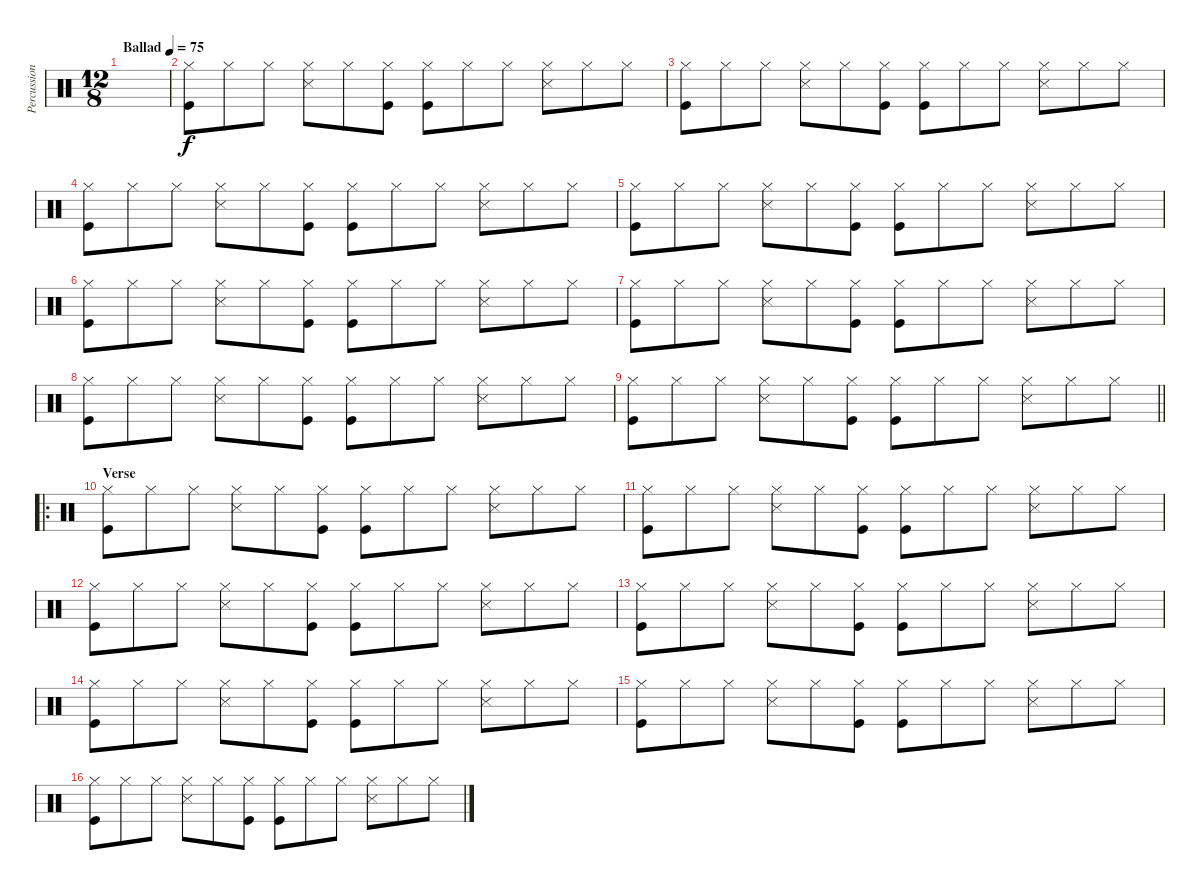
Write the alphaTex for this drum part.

\track ("Percussion" "Percussion") {instrument percussion}
\staff {score}
\articulation defaults
\ts (12 8)
\tempo (75 "Ballad")
\clef neutral
\ks c
|
("Hi-Hat (closed)" "Kick (hit)").8 "Hi-Hat (closed)".8 "Hi-Hat (closed)".8 ("Hi-Hat (closed)" "Snare (side stick) 3").8 "Hi-Hat (closed)".8 ("Hi-Hat (closed)" "Kick (hit)").8 ("Hi-Hat (closed)" "Kick (hit)").8 "Hi-Hat (closed)".8 "Hi-Hat (closed)".8 ("Hi-Hat (closed)" "Snare (side stick) 3").8 "Hi-Hat (closed)".8 "Hi-Hat (closed)".8 |
("Hi-Hat (closed)" "Kick (hit)").8 "Hi-Hat (closed)".8 "Hi-Hat (closed)".8 ("Hi-Hat (closed)" "Snare (side stick) 3").8 "Hi-Hat (closed)".8 ("Hi-Hat (closed)" "Kick (hit)").8 ("Hi-Hat (closed)" "Kick (hit)").8 "Hi-Hat (closed)".8 "Hi-Hat (closed)".8 ("Hi-Hat (closed)" "Snare (side stick) 3").8 "Hi-Hat (closed)".8 "Hi-Hat (closed)".8 |
("Hi-Hat (closed)" "Kick (hit)").8 "Hi-Hat (closed)".8 "Hi-Hat (closed)".8 ("Hi-Hat (closed)" "Snare (side stick) 3").8 "Hi-Hat (closed)".8 ("Hi-Hat (closed)" "Kick (hit)").8 ("Hi-Hat (closed)" "Kick (hit)").8 "Hi-Hat (closed)".8 "Hi-Hat (closed)".8 ("Hi-Hat (closed)" "Snare (side stick) 3").8 "Hi-Hat (closed)".8 "Hi-Hat (closed)".8 |
("Hi-Hat (closed)" "Kick (hit)").8 "Hi-Hat (closed)".8 "Hi-Hat (closed)".8 ("Hi-Hat (closed)" "Snare (side stick) 3").8 "Hi-Hat (closed)".8 ("Hi-Hat (closed)" "Kick (hit)").8 ("Hi-Hat (closed)" "Kick (hit)").8 "Hi-Hat (closed)".8 "Hi-Hat (closed)".8 ("Hi-Hat (closed)" "Snare (side stick) 3").8 "Hi-Hat (closed)".8 "Hi-Hat (closed)".8 |
("Hi-Hat (closed)" "Kick (hit)").8 "Hi-Hat (closed)".8 "Hi-Hat (closed)".8 ("Hi-Hat (closed)" "Snare (side stick) 3").8 "Hi-Hat (closed)".8 ("Hi-Hat (closed)" "Kick (hit)").8 ("Hi-Hat (closed)" "Kick (hit)").8 "Hi-Hat (closed)".8 "Hi-Hat (closed)".8 ("Hi-Hat (closed)" "Snare (side stick) 3").8 "Hi-Hat (closed)".8 "Hi-Hat (closed)".8 |
("Hi-Hat (closed)" "Kick (hit)").8 "Hi-Hat (closed)".8 "Hi-Hat (closed)".8 ("Hi-Hat (closed)" "Snare (side stick) 3").8 "Hi-Hat (closed)".8 ("Hi-Hat (closed)" "Kick (hit)").8 ("Hi-Hat (closed)" "Kick (hit)").8 "Hi-Hat (closed)".8 "Hi-Hat (closed)".8 ("Hi-Hat (closed)" "Snare (side stick) 3").8 "Hi-Hat (closed)".8 "Hi-Hat (closed)".8 |
("Hi-Hat (closed)" "Kick (hit)").8 "Hi-Hat (closed)".8 "Hi-Hat (closed)".8 ("Hi-Hat (closed)" "Snare (side stick) 3").8 "Hi-Hat (closed)".8 ("Hi-Hat (closed)" "Kick (hit)").8 ("Hi-Hat (closed)" "Kick (hit)").8 "Hi-Hat (closed)".8 "Hi-Hat (closed)".8 ("Hi-Hat (closed)" "Snare (side stick) 3").8 "Hi-Hat (closed)".8 "Hi-Hat (closed)".8 |
\barLineRight lightlight
("Hi-Hat (closed)" "Kick (hit)").8 "Hi-Hat (closed)".8 "Hi-Hat (closed)".8 ("Hi-Hat (closed)" "Snare (side stick) 3").8 "Hi-Hat (closed)".8 ("Hi-Hat (closed)" "Kick (hit)").8 ("Hi-Hat (closed)" "Kick (hit)").8 "Hi-Hat (closed)".8 "Hi-Hat (closed)".8 ("Hi-Hat (closed)" "Snare (side stick) 3").8 "Hi-Hat (closed)".8 "Hi-Hat (closed)".8 |
\ro
\section ("" "Verse")
("Hi-Hat (closed)" "Kick (hit)").8 "Hi-Hat (closed)".8 "Hi-Hat (closed)".8 ("Hi-Hat (closed)" "Snare (side stick) 3").8 "Hi-Hat (closed)".8 ("Hi-Hat (closed)" "Kick (hit)").8 ("Hi-Hat (closed)" "Kick (hit)").8 "Hi-Hat (closed)".8 "Hi-Hat (closed)".8 ("Hi-Hat (closed)" "Snare (side stick) 3").8 "Hi-Hat (closed)".8 "Hi-Hat (closed)".8 |
("Hi-Hat (closed)" "Kick (hit)").8 "Hi-Hat (closed)".8 "Hi-Hat (closed)".8 ("Hi-Hat (closed)" "Snare (side stick) 3").8 "Hi-Hat (closed)".8 ("Hi-Hat (closed)" "Kick (hit)").8 ("Hi-Hat (closed)" "Kick (hit)").8 "Hi-Hat (closed)".8 "Hi-Hat (closed)".8 ("Hi-Hat (closed)" "Snare (side stick) 3").8 "Hi-Hat (closed)".8 "Hi-Hat (closed)".8 |
("Hi-Hat (closed)" "Kick (hit)").8 "Hi-Hat (closed)".8 "Hi-Hat (closed)".8 ("Hi-Hat (closed)" "Snare (side stick) 3").8 "Hi-Hat (closed)".8 ("Hi-Hat (closed)" "Kick (hit)").8 ("Hi-Hat (closed)" "Kick (hit)").8 "Hi-Hat (closed)".8 "Hi-Hat (closed)".8 ("Hi-Hat (closed)" "Snare (side stick) 3").8 "Hi-Hat (closed)".8 "Hi-Hat (closed)".8 |
("Hi-Hat (closed)" "Kick (hit)").8 "Hi-Hat (closed)".8 "Hi-Hat (closed)".8 ("Hi-Hat (closed)" "Snare (side stick) 3").8 "Hi-Hat (closed)".8 ("Hi-Hat (closed)" "Kick (hit)").8 ("Hi-Hat (closed)" "Kick (hit)").8 "Hi-Hat (closed)".8 "Hi-Hat (closed)".8 ("Hi-Hat (closed)" "Snare (side stick) 3").8 "Hi-Hat (closed)".8 "Hi-Hat (closed)".8 |
("Hi-Hat (closed)" "Kick (hit)").8 "Hi-Hat (closed)".8 "Hi-Hat (closed)".8 ("Hi-Hat (closed)" "Snare (side stick) 3").8 "Hi-Hat (closed)".8 ("Hi-Hat (closed)" "Kick (hit)").8 ("Hi-Hat (closed)" "Kick (hit)").8 "Hi-Hat (closed)".8 "Hi-Hat (closed)".8 ("Hi-Hat (closed)" "Snare (side stick) 3").8 "Hi-Hat (closed)".8 "Hi-Hat (closed)".8 |
("Hi-Hat (closed)" "Kick (hit)").8 "Hi-Hat (closed)".8 "Hi-Hat (closed)".8 ("Hi-Hat (closed)" "Snare (side stick) 3").8 "Hi-Hat (closed)".8 ("Hi-Hat (closed)" "Kick (hit)").8 ("Hi-Hat (closed)" "Kick (hit)").8 "Hi-Hat (closed)".8 "Hi-Hat (closed)".8 ("Hi-Hat (closed)" "Snare (side stick) 3").8 "Hi-Hat (closed)".8 "Hi-Hat (closed)".8 |
("Hi-Hat (closed)" "Kick (hit)").8 "Hi-Hat (closed)".8 "Hi-Hat (closed)".8 ("Hi-Hat (closed)" "Snare (side stick) 3").8 "Hi-Hat (closed)".8 ("Hi-Hat (closed)" "Kick (hit)").8 ("Hi-Hat (closed)" "Kick (hit)").8 "Hi-Hat (closed)".8 "Hi-Hat (closed)".8 ("Hi-Hat (closed)" "Snare (side stick) 3").8 "Hi-Hat (closed)".8 "Hi-Hat (closed)".8
